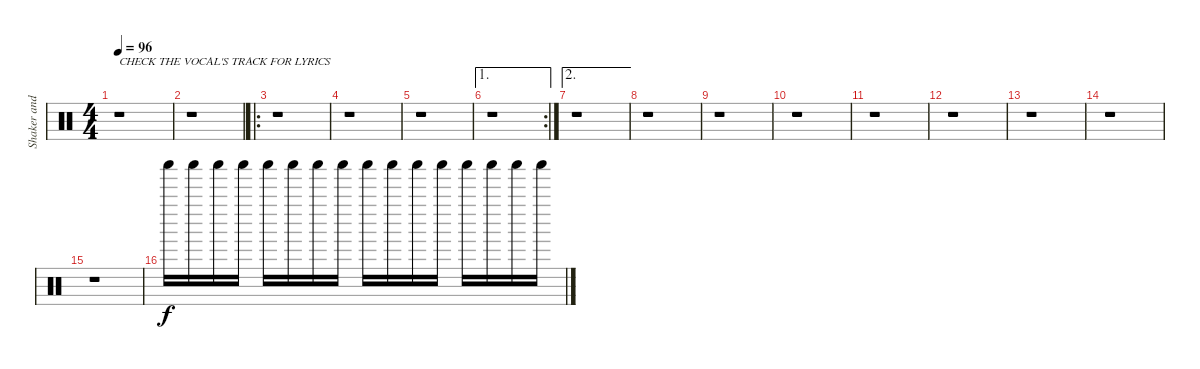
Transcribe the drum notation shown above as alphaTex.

\track ("Shaker and Tambourine" "Shaker and") {instrument percussion}
\staff {score}
\articulation defaults
\ts (4 4)
\tempo 96
\clef neutral
\ks c
r.1{txt "CHECK THE VOCAL'S TRACK FOR LYRICS" dy f} |
r.1 |
\ro
r.1 |
r.1 |
r.1 |
\ae 1
\rc 2
r.1 |
\ae 2
r.1 |
r.1 |
r.1 |
r.1 |
r.1 |
r.1 |
r.1 |
r.1 |
r.1 |
"Shaker (hit)".16 "Shaker (hit)".16 "Shaker (hit)".16 "Shaker (hit)".16 "Shaker (hit)".16 "Shaker (hit)".16 "Shaker (hit)".16 "Shaker (hit)".16 "Shaker (hit)".16 "Shaker (hit)".16 "Shaker (hit)".16 "Shaker (hit)".16 "Shaker (hit)".16 "Shaker (hit)".16 "Shaker (hit)".16 "Shaker (hit)".16
